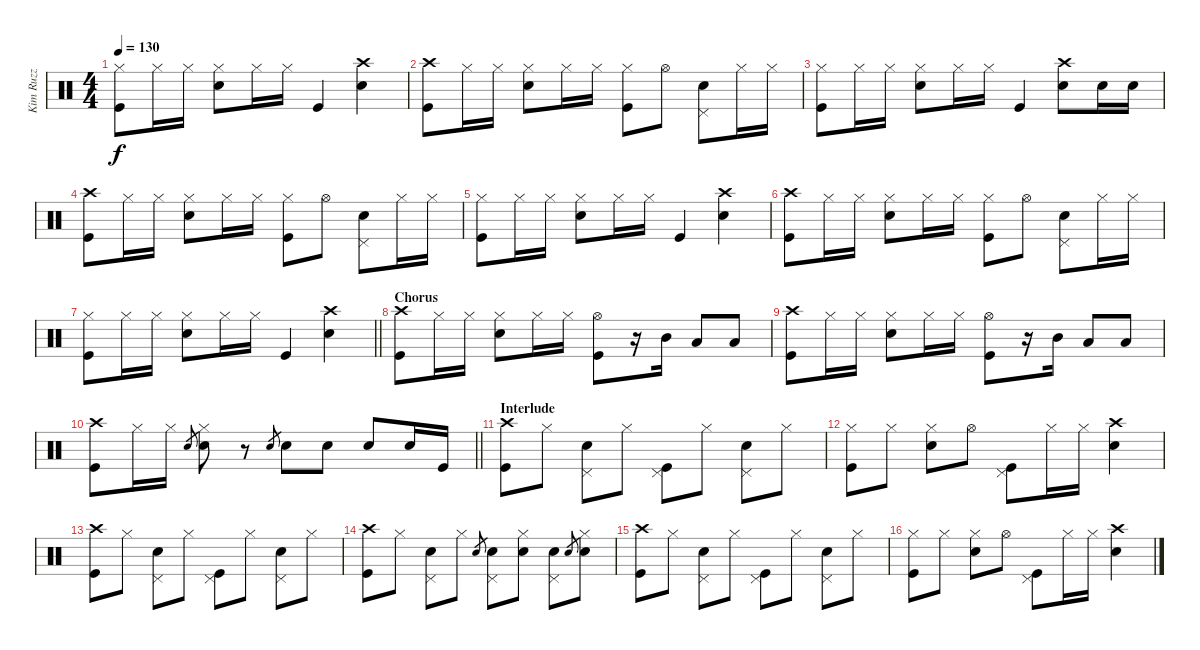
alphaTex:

\track ("Kim Ruzz" "Kim Ruzz") {instrument percussion}
\staff {score}
\articulation defaults
\ts (4 4)
\tempo 130
\clef neutral
\ks c
("Hi-Hat (closed)" "Kick (hit)").8{dy f} "Hi-Hat (closed)".16 "Hi-Hat (closed)".16 ("Hi-Hat (closed)" "Snare (hit) 2").8 "Hi-Hat (closed)".16 "Hi-Hat (closed)".16 "Kick (hit)".4 ("Crash high (hit)" "Snare (hit) 2").4 |
("Crash high (hit)" "Kick (hit)").8 "Hi-Hat (closed)".16 "Hi-Hat (closed)".16 ("Hi-Hat (closed)" "Snare (hit) 2").8 "Hi-Hat (closed)".16 "Hi-Hat (closed)".16 ("Hi-Hat (closed)" "Kick (hit)").8 "Hi-Hat (open)".8 ("Pedal Hi-Hat (hit)" "Snare (hit) 2").8 "Hi-Hat (closed)".16 "Hi-Hat (closed)".16 |
("Hi-Hat (closed)" "Kick (hit)").8 "Hi-Hat (closed)".16 "Hi-Hat (closed)".16 ("Hi-Hat (closed)" "Snare (hit) 2").8 "Hi-Hat (closed)".16 "Hi-Hat (closed)".16 "Kick (hit)".4 ("Crash high (hit)" "Snare (hit) 2").8 "Snare (hit) 2".16 "Snare (hit) 2".16 |
("Crash high (hit)" "Kick (hit)").8 "Hi-Hat (closed)".16 "Hi-Hat (closed)".16 ("Hi-Hat (closed)" "Snare (hit) 2").8 "Hi-Hat (closed)".16 "Hi-Hat (closed)".16 ("Hi-Hat (closed)" "Kick (hit)").8 "Hi-Hat (open)".8 ("Pedal Hi-Hat (hit)" "Snare (hit) 2").8 "Hi-Hat (closed)".16 "Hi-Hat (closed)".16 |
("Hi-Hat (closed)" "Kick (hit)").8 "Hi-Hat (closed)".16 "Hi-Hat (closed)".16 ("Hi-Hat (closed)" "Snare (hit) 2").8 "Hi-Hat (closed)".16 "Hi-Hat (closed)".16 "Kick (hit)".4 ("Crash high (hit)" "Snare (hit) 2").4 |
("Crash high (hit)" "Kick (hit)").8 "Hi-Hat (closed)".16 "Hi-Hat (closed)".16 ("Hi-Hat (closed)" "Snare (hit) 2").8 "Hi-Hat (closed)".16 "Hi-Hat (closed)".16 ("Hi-Hat (closed)" "Kick (hit)").8 "Hi-Hat (open)".8 ("Pedal Hi-Hat (hit)" "Snare (hit) 2").8 "Hi-Hat (closed)".16 "Hi-Hat (closed)".16 |
\barLineRight lightlight
("Hi-Hat (closed)" "Kick (hit)").8 "Hi-Hat (closed)".16 "Hi-Hat (closed)".16 ("Hi-Hat (closed)" "Snare (hit) 2").8 "Hi-Hat (closed)".16 "Hi-Hat (closed)".16 "Kick (hit)".4 ("Crash high (hit)" "Snare (hit) 2").4 |
\section ("" "Chorus")
("Crash high (hit)" "Kick (hit)").8 "Hi-Hat (closed)".16 "Hi-Hat (closed)".16 ("Hi-Hat (closed)" "Snare (hit) 2").8 "Hi-Hat (closed)".16 "Hi-Hat (closed)".16 ("Hi-Hat (open)" "Kick (hit)").8 r.16 "Mid Tom (hit)".16 "Low Tom (hit)".8 "Low Tom (hit)".8 |
("Crash high (hit)" "Kick (hit)").8 "Hi-Hat (closed)".16 "Hi-Hat (closed)".16 ("Hi-Hat (closed)" "Snare (hit) 2").8 "Hi-Hat (closed)".16 "Hi-Hat (closed)".16 ("Hi-Hat (open)" "Kick (hit)").8 r.16 "Mid Tom (hit)".16 "Low Tom (hit)".8 "Low Tom (hit)".8 |
\barLineRight lightlight
("Crash high (hit)" "Kick (hit)").8 "Hi-Hat (closed)".16 "Hi-Hat (closed)".16 "Snare (hit) 2".8{gr} ("Hi-Hat (closed)" "Snare (hit) 2").8 r.8 "Snare (hit) 2".8{gr} "Snare (hit) 2".8 "Snare (hit) 2".8 "Snare (hit) 2".8 "Snare (hit) 2".16 "Kick (hit)".16 |
\section ("" "Interlude")
("Crash high (hit)" "Kick (hit)").8 "Hi-Hat (closed)".8 ("Pedal Hi-Hat (hit)" "Snare (hit) 2").8 "Hi-Hat (closed)".8 ("Pedal Hi-Hat (hit)" "Kick (hit)").8 "Hi-Hat (closed)".8 ("Pedal Hi-Hat (hit)" "Snare (hit) 2").8 "Hi-Hat (closed)".8 |
("Hi-Hat (closed)" "Kick (hit)").8 "Hi-Hat (closed)".8 ("Hi-Hat (closed)" "Snare (hit) 2").8 "Hi-Hat (open)".8 ("Pedal Hi-Hat (hit)" "Kick (hit)").8 "Hi-Hat (closed)".16 "Hi-Hat (closed)".16 ("Crash high (hit)" "Snare (hit) 2").4 |
("Crash high (hit)" "Kick (hit)").8 "Hi-Hat (closed)".8 ("Pedal Hi-Hat (hit)" "Snare (hit) 2").8 "Hi-Hat (closed)".8 ("Pedal Hi-Hat (hit)" "Kick (hit)").8 "Hi-Hat (closed)".8 ("Pedal Hi-Hat (hit)" "Snare (hit) 2").8 "Hi-Hat (closed)".8 |
("Crash high (hit)" "Kick (hit)").8 "Hi-Hat (closed)".8 ("Pedal Hi-Hat (hit)" "Snare (hit) 2").8 "Hi-Hat (closed)".8 "Snare (hit) 2".8{gr} ("Pedal Hi-Hat (hit)" "Snare (hit) 2").8 ("Hi-Hat (closed)" "Snare (hit) 2").8 ("Pedal Hi-Hat (hit)" "Snare (hit) 2").8 "Snare (hit) 2".8{gr} ("Hi-Hat (closed)" "Snare (hit) 2").8 |
("Crash high (hit)" "Kick (hit)").8 "Hi-Hat (closed)".8 ("Pedal Hi-Hat (hit)" "Snare (hit) 2").8 "Hi-Hat (closed)".8 ("Pedal Hi-Hat (hit)" "Kick (hit)").8 "Hi-Hat (closed)".8 ("Pedal Hi-Hat (hit)" "Snare (hit) 2").8 "Hi-Hat (closed)".8 |
("Hi-Hat (closed)" "Kick (hit)").8 "Hi-Hat (closed)".8 ("Hi-Hat (closed)" "Snare (hit) 2").8 "Hi-Hat (open)".8 ("Pedal Hi-Hat (hit)" "Kick (hit)").8 "Hi-Hat (closed)".16 "Hi-Hat (closed)".16 ("Crash high (hit)" "Snare (hit) 2").4
